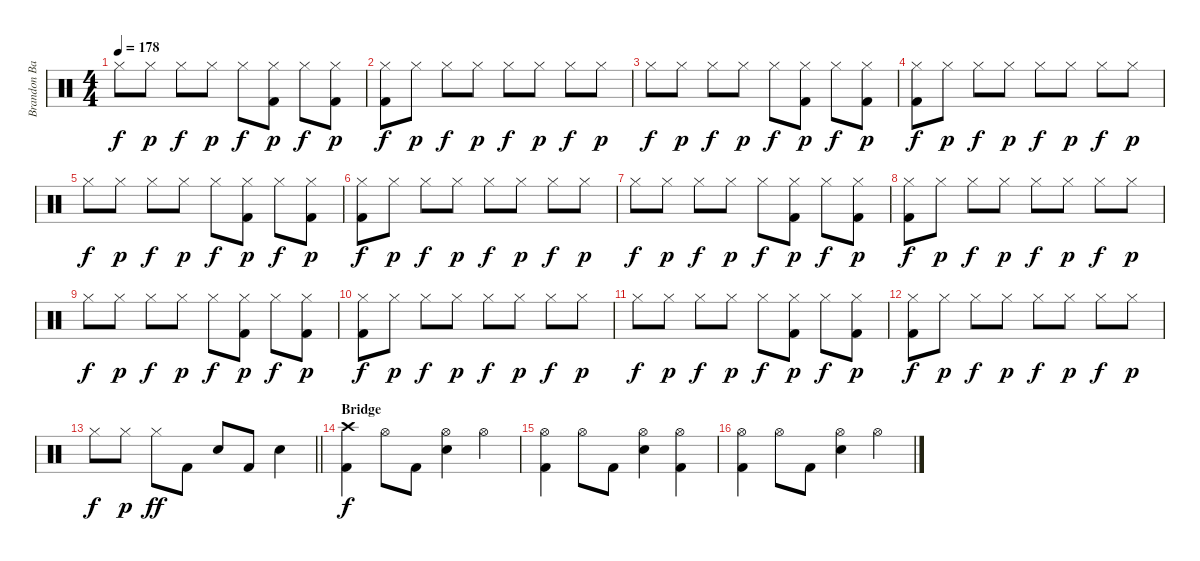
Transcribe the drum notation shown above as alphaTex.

\track ("Brandon Barnes - Drums" "Brandon Ba") {instrument percussion}
\staff {score}
\articulation defaults
\ts (4 4)
\tempo 178
\clef neutral
\ks c "Hi-Hat (closed)".8{dy f} "Hi-Hat (closed)".8{dy p} "Hi-Hat (closed)".8{dy f} "Hi-Hat (closed)".8{dy p} "Hi-Hat (closed)".8{dy f}
("Hi-Hat (closed)" "Kick (hit) 2").8{dy p} "Hi-Hat (closed)".8{dy f} ("Hi-Hat (closed)" "Kick (hit) 2").8{dy p} |
("Hi-Hat (closed)" "Kick (hit) 2").8{dy f} "Hi-Hat (closed)".8{dy p} "Hi-Hat (closed)".8{dy f} "Hi-Hat (closed)".8{dy p} "Hi-Hat (closed)".8{dy f} "Hi-Hat (closed)".8{dy p} "Hi-Hat (closed)".8{dy f} "Hi-Hat (closed)".8{dy p} |
"Hi-Hat (closed)".8{dy f} "Hi-Hat (closed)".8{dy p} "Hi-Hat (closed)".8{dy f} "Hi-Hat (closed)".8{dy p} "Hi-Hat (closed)".8{dy f} ("Hi-Hat (closed)" "Kick (hit) 2").8{dy p} "Hi-Hat (closed)".8{dy f} ("Hi-Hat (closed)" "Kick (hit) 2").8{dy p} |
("Hi-Hat (closed)" "Kick (hit) 2").8{dy f} "Hi-Hat (closed)".8{dy p} "Hi-Hat (closed)".8{dy f} "Hi-Hat (closed)".8{dy p} "Hi-Hat (closed)".8{dy f} "Hi-Hat (closed)".8{dy p} "Hi-Hat (closed)".8{dy f} "Hi-Hat (closed)".8{dy p} |
"Hi-Hat (closed)".8{dy f} "Hi-Hat (closed)".8{dy p} "Hi-Hat (closed)".8{dy f} "Hi-Hat (closed)".8{dy p} "Hi-Hat (closed)".8{dy f} ("Hi-Hat (closed)" "Kick (hit) 2").8{dy p} "Hi-Hat (closed)".8{dy f} ("Hi-Hat (closed)" "Kick (hit) 2").8{dy p} |
("Hi-Hat (closed)" "Kick (hit) 2").8{dy f} "Hi-Hat (closed)".8{dy p} "Hi-Hat (closed)".8{dy f} "Hi-Hat (closed)".8{dy p} "Hi-Hat (closed)".8{dy f} "Hi-Hat (closed)".8{dy p} "Hi-Hat (closed)".8{dy f} "Hi-Hat (closed)".8{dy p} |
"Hi-Hat (closed)".8{dy f} "Hi-Hat (closed)".8{dy p} "Hi-Hat (closed)".8{dy f} "Hi-Hat (closed)".8{dy p} "Hi-Hat (closed)".8{dy f} ("Hi-Hat (closed)" "Kick (hit) 2").8{dy p} "Hi-Hat (closed)".8{dy f} ("Hi-Hat (closed)" "Kick (hit) 2").8{dy p} |
("Hi-Hat (closed)" "Kick (hit) 2").8{dy f} "Hi-Hat (closed)".8{dy p} "Hi-Hat (closed)".8{dy f} "Hi-Hat (closed)".8{dy p} "Hi-Hat (closed)".8{dy f} "Hi-Hat (closed)".8{dy p} "Hi-Hat (closed)".8{dy f} "Hi-Hat (closed)".8{dy p} |
"Hi-Hat (closed)".8{dy f} "Hi-Hat (closed)".8{dy p} "Hi-Hat (closed)".8{dy f} "Hi-Hat (closed)".8{dy p} "Hi-Hat (closed)".8{dy f} ("Hi-Hat (closed)" "Kick (hit) 2").8{dy p} "Hi-Hat (closed)".8{dy f} ("Hi-Hat (closed)" "Kick (hit) 2").8{dy p} |
("Hi-Hat (closed)" "Kick (hit) 2").8{dy f} "Hi-Hat (closed)".8{dy p} "Hi-Hat (closed)".8{dy f} "Hi-Hat (closed)".8{dy p} "Hi-Hat (closed)".8{dy f} "Hi-Hat (closed)".8{dy p} "Hi-Hat (closed)".8{dy f} "Hi-Hat (closed)".8{dy p} |
"Hi-Hat (closed)".8{dy f} "Hi-Hat (closed)".8{dy p} "Hi-Hat (closed)".8{dy f} "Hi-Hat (closed)".8{dy p} "Hi-Hat (closed)".8{dy f} ("Hi-Hat (closed)" "Kick (hit) 2").8{dy p} "Hi-Hat (closed)".8{dy f} ("Hi-Hat (closed)" "Kick (hit) 2").8{dy p} |
("Hi-Hat (closed)" "Kick (hit) 2").8{dy f} "Hi-Hat (closed)".8{dy p} "Hi-Hat (closed)".8{dy f} "Hi-Hat (closed)".8{dy p} "Hi-Hat (closed)".8{dy f} "Hi-Hat (closed)".8{dy p} "Hi-Hat (closed)".8{dy f} "Hi-Hat (closed)".8{dy p} |
\barLineRight lightlight "Hi-Hat (closed)".8{dy f} "Hi-Hat (closed)".8{dy p} "Hi-Hat (closed)".8{dy ff} "Kick (hit) 2".8 "Snare (hit) 2".8 "Kick (hit) 2".8 "Snare (hit) 2".4
|
\section ("" "Bridge")
("Crash high (hit)" "Kick (hit) 2").4{dy f} "Hi-Hat (open)".8 "Kick (hit) 2".8 ("Snare (hit) 2" "Hi-Hat (open)").4 "Hi-Hat (open)".4 |
("Kick (hit) 2" "Hi-Hat (open)").4 "Hi-Hat (open)".8 "Kick (hit) 2".8 ("Snare (hit) 2" "Hi-Hat (open)").4 ("Kick (hit) 2" "Hi-Hat (open)").4 |
("Kick (hit) 2" "Hi-Hat (open)").4 "Hi-Hat (open)".8 "Kick (hit) 2".8 ("Snare (hit) 2" "Hi-Hat (open)").4 "Hi-Hat (open)".4
